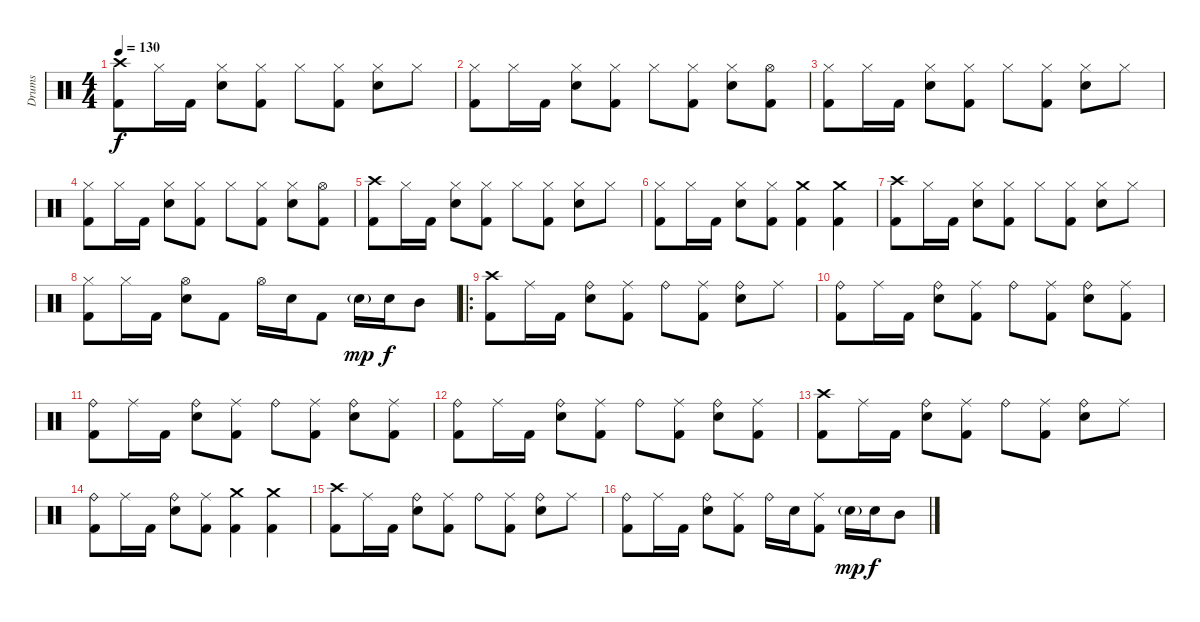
\track ("Drums" "Drums") {instrument percussion}
\staff {score}
\articulation defaults
\ts (4 4)
\tempo 130
\clef neutral
\ks c
("Crash high (hit)" "Kick (hit) 2").8{dy f} "Hi-Hat (closed)".16 "Kick (hit) 2".16 ("Hi-Hat (closed)" "Electric Snare (hit)").8 ("Hi-Hat (closed)" "Kick (hit) 2").8 "Hi-Hat (closed)".8 ("Hi-Hat (closed)" "Kick (hit) 2").8 ("Hi-Hat (closed)" "Electric Snare (hit)").8 "Hi-Hat (closed)".8 |
("Hi-Hat (closed)" "Kick (hit) 2").8 "Hi-Hat (closed)".16 "Kick (hit) 2".16 ("Hi-Hat (closed)" "Electric Snare (hit)").8 ("Hi-Hat (closed)" "Kick (hit) 2").8 "Hi-Hat (closed)".8 ("Hi-Hat (closed)" "Kick (hit) 2").8 ("Hi-Hat (closed)" "Electric Snare (hit)").8 ("Hi-Hat (open)" "Kick (hit) 2").8 |
("Hi-Hat (closed)" "Kick (hit) 2").8 "Hi-Hat (closed)".16 "Kick (hit) 2".16 ("Hi-Hat (closed)" "Electric Snare (hit)").8 ("Hi-Hat (closed)" "Kick (hit) 2").8 "Hi-Hat (closed)".8 ("Hi-Hat (closed)" "Kick (hit) 2").8 ("Hi-Hat (closed)" "Electric Snare (hit)").8 "Hi-Hat (closed)".8 |
("Hi-Hat (closed)" "Kick (hit) 2").8 "Hi-Hat (closed)".16 "Kick (hit) 2".16 ("Hi-Hat (closed)" "Electric Snare (hit)").8 ("Hi-Hat (closed)" "Kick (hit) 2").8 "Hi-Hat (closed)".8 ("Hi-Hat (closed)" "Kick (hit) 2").8 ("Hi-Hat (closed)" "Electric Snare (hit)").8 ("Hi-Hat (open)" "Kick (hit) 2").8 |
("Crash high (hit)" "Kick (hit) 2").8 "Hi-Hat (closed)".16 "Kick (hit) 2".16 ("Hi-Hat (closed)" "Electric Snare (hit)").8 ("Hi-Hat (closed)" "Kick (hit) 2").8 "Hi-Hat (closed)".8 ("Hi-Hat (closed)" "Kick (hit) 2").8 ("Hi-Hat (closed)" "Electric Snare (hit)").8 "Hi-Hat (closed)".8 |
("Hi-Hat (closed)" "Kick (hit) 2").8 "Hi-Hat (closed)".16 "Kick (hit) 2".16 ("Hi-Hat (closed)" "Electric Snare (hit)").8 ("Hi-Hat (closed)" "Kick (hit) 2").8 ("Crash medium (hit)" "Kick (hit) 2").4 ("Crash medium (hit)" "Kick (hit) 2").4 |
("Crash high (hit)" "Kick (hit) 2").8 "Hi-Hat (closed)".16 "Kick (hit) 2".16 ("Hi-Hat (closed)" "Electric Snare (hit)").8 ("Hi-Hat (closed)" "Kick (hit) 2").8 "Hi-Hat (closed)".8 ("Hi-Hat (closed)" "Kick (hit) 2").8 ("Hi-Hat (closed)" "Electric Snare (hit)").8 "Hi-Hat (closed)".8 |
("Hi-Hat (closed)" "Kick (hit) 2").8 "Hi-Hat (closed)".16 "Kick (hit) 2".16 ("Hi-Hat (open)" "Electric Snare (hit)").8 "Kick (hit) 2".8 "Hi-Hat (open)".16 "Electric Snare (hit)".16 "Kick (hit) 2".8 "Electric Snare (hit)"{g}.16{dy mp} "Electric Snare (hit)".16{dy f} "Mid Tom (hit)".8 |
\ro
("Crash high (hit)" "Kick (hit) 2").8 "Ride (middle)".16 "Kick (hit) 2".16 ("Ride (bell)" "Electric Snare (hit)").8 ("Ride (middle)" "Kick (hit) 2").8 "Ride (bell)".8 ("Ride (middle)" "Kick (hit) 2").8 ("Ride (bell)" "Electric Snare (hit)").8 "Ride (middle)".8 |
("Ride (bell)" "Kick (hit) 2").8 "Ride (middle)".16 "Kick (hit) 2".16 ("Ride (bell)" "Electric Snare (hit)").8 ("Ride (middle)" "Kick (hit) 2").8 "Ride (bell)".8 ("Ride (middle)" "Kick (hit) 2").8 ("Ride (bell)" "Electric Snare (hit)").8 ("Ride (middle)" "Kick (hit) 2").8 |
("Ride (bell)" "Kick (hit) 2").8 "Ride (middle)".16 "Kick (hit) 2".16 ("Ride (bell)" "Electric Snare (hit)").8 ("Ride (middle)" "Kick (hit) 2").8 "Ride (bell)".8 ("Ride (middle)" "Kick (hit) 2").8 ("Ride (bell)" "Electric Snare (hit)").8 ("Ride (middle)" "Kick (hit) 2").8 |
("Ride (bell)" "Kick (hit) 2").8 "Ride (middle)".16 "Kick (hit) 2".16 ("Ride (bell)" "Electric Snare (hit)").8 ("Ride (middle)" "Kick (hit) 2").8 "Ride (bell)".8 ("Ride (middle)" "Kick (hit) 2").8 ("Ride (bell)" "Electric Snare (hit)").8 ("Ride (middle)" "Kick (hit) 2").8 |
("Crash high (hit)" "Kick (hit) 2").8 "Ride (middle)".16 "Kick (hit) 2".16 ("Ride (bell)" "Electric Snare (hit)").8 ("Ride (middle)" "Kick (hit) 2").8 "Ride (bell)".8 ("Ride (middle)" "Kick (hit) 2").8 ("Ride (bell)" "Electric Snare (hit)").8 "Ride (middle)".8 |
("Ride (bell)" "Kick (hit) 2").8 "Ride (middle)".16 "Kick (hit) 2".16 ("Ride (bell)" "Electric Snare (hit)").8 ("Ride (middle)" "Kick (hit) 2").8 ("Crash medium (hit)" "Kick (hit) 2").4 ("Crash medium (hit)" "Kick (hit) 2").4 |
("Crash high (hit)" "Kick (hit) 2").8 "Ride (middle)".16 "Kick (hit) 2".16 ("Ride (bell)" "Electric Snare (hit)").8 ("Ride (middle)" "Kick (hit) 2").8 "Ride (bell)".8 ("Ride (middle)" "Kick (hit) 2").8 ("Ride (bell)" "Electric Snare (hit)").8 "Ride (middle)".8 |
("Ride (bell)" "Kick (hit) 2").8 "Ride (middle)".16 "Kick (hit) 2".16 ("Ride (bell)" "Electric Snare (hit)").8 ("Ride (middle)" "Kick (hit) 2").8 "Ride (bell)".16 "Electric Snare (hit)".16 ("Ride (middle)" "Kick (hit) 2").8 "Electric Snare (hit)"{g}.16{dy mp} "Electric Snare (hit)".16{dy f} "Mid Tom (hit)".8
